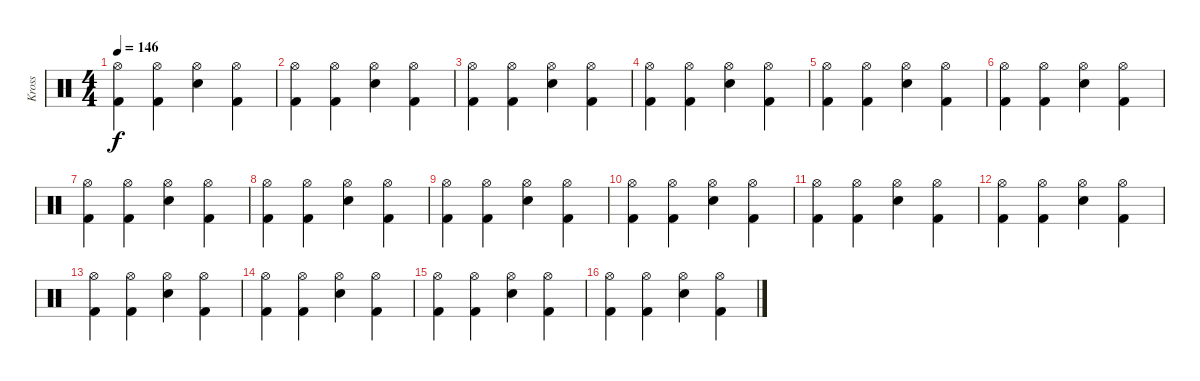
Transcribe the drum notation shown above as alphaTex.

\track ("Kross" "Kross") {instrument percussion}
\staff {score}
\articulation defaults
\ts (4 4)
\tempo 146
\clef neutral
\ks c
("Hi-Hat (open)" "Kick (hit) 2").4{dy f} ("Hi-Hat (open)" "Kick (hit) 2").4 ("Hi-Hat (open)" "Snare (hit) 2").4 ("Hi-Hat (open)" "Kick (hit) 2").4 |
("Hi-Hat (open)" "Kick (hit) 2").4 ("Hi-Hat (open)" "Kick (hit) 2").4 ("Hi-Hat (open)" "Snare (hit) 2").4 ("Hi-Hat (open)" "Kick (hit) 2").4 |
("Hi-Hat (open)" "Kick (hit) 2").4 ("Hi-Hat (open)" "Kick (hit) 2").4 ("Hi-Hat (open)" "Snare (hit) 2").4 ("Hi-Hat (open)" "Kick (hit) 2").4 |
("Hi-Hat (open)" "Kick (hit) 2").4 ("Hi-Hat (open)" "Kick (hit) 2").4 ("Hi-Hat (open)" "Snare (hit) 2").4 ("Hi-Hat (open)" "Kick (hit) 2").4 |
("Hi-Hat (open)" "Kick (hit) 2").4 ("Hi-Hat (open)" "Kick (hit) 2").4 ("Hi-Hat (open)" "Snare (hit) 2").4 ("Hi-Hat (open)" "Kick (hit) 2").4 |
("Hi-Hat (open)" "Kick (hit) 2").4 ("Hi-Hat (open)" "Kick (hit) 2").4 ("Hi-Hat (open)" "Snare (hit) 2").4 ("Hi-Hat (open)" "Kick (hit) 2").4 |
("Hi-Hat (open)" "Kick (hit) 2").4 ("Hi-Hat (open)" "Kick (hit) 2").4 ("Hi-Hat (open)" "Snare (hit) 2").4 ("Hi-Hat (open)" "Kick (hit) 2").4 |
("Hi-Hat (open)" "Kick (hit) 2").4 ("Hi-Hat (open)" "Kick (hit) 2").4 ("Hi-Hat (open)" "Snare (hit) 2").4 ("Hi-Hat (open)" "Kick (hit) 2").4 |
("Hi-Hat (open)" "Kick (hit) 2").4 ("Hi-Hat (open)" "Kick (hit) 2").4 ("Hi-Hat (open)" "Snare (hit) 2").4 ("Hi-Hat (open)" "Kick (hit) 2").4 |
("Hi-Hat (open)" "Kick (hit) 2").4 ("Hi-Hat (open)" "Kick (hit) 2").4 ("Hi-Hat (open)" "Snare (hit) 2").4 ("Hi-Hat (open)" "Kick (hit) 2").4 |
("Hi-Hat (open)" "Kick (hit) 2").4 ("Hi-Hat (open)" "Kick (hit) 2").4 ("Hi-Hat (open)" "Snare (hit) 2").4 ("Hi-Hat (open)" "Kick (hit) 2").4 |
("Hi-Hat (open)" "Kick (hit) 2").4 ("Hi-Hat (open)" "Kick (hit) 2").4 ("Hi-Hat (open)" "Snare (hit) 2").4 ("Hi-Hat (open)" "Kick (hit) 2").4 |
("Hi-Hat (open)" "Kick (hit) 2").4 ("Hi-Hat (open)" "Kick (hit) 2").4 ("Hi-Hat (open)" "Snare (hit) 2").4 ("Hi-Hat (open)" "Kick (hit) 2").4 |
("Hi-Hat (open)" "Kick (hit) 2").4 ("Hi-Hat (open)" "Kick (hit) 2").4 ("Hi-Hat (open)" "Snare (hit) 2").4 ("Hi-Hat (open)" "Kick (hit) 2").4 |
("Hi-Hat (open)" "Kick (hit) 2").4 ("Hi-Hat (open)" "Kick (hit) 2").4 ("Hi-Hat (open)" "Snare (hit) 2").4 ("Hi-Hat (open)" "Kick (hit) 2").4 |
("Hi-Hat (open)" "Kick (hit) 2").4 ("Hi-Hat (open)" "Kick (hit) 2").4 ("Hi-Hat (open)" "Snare (hit) 2").4 ("Hi-Hat (open)" "Kick (hit) 2").4
